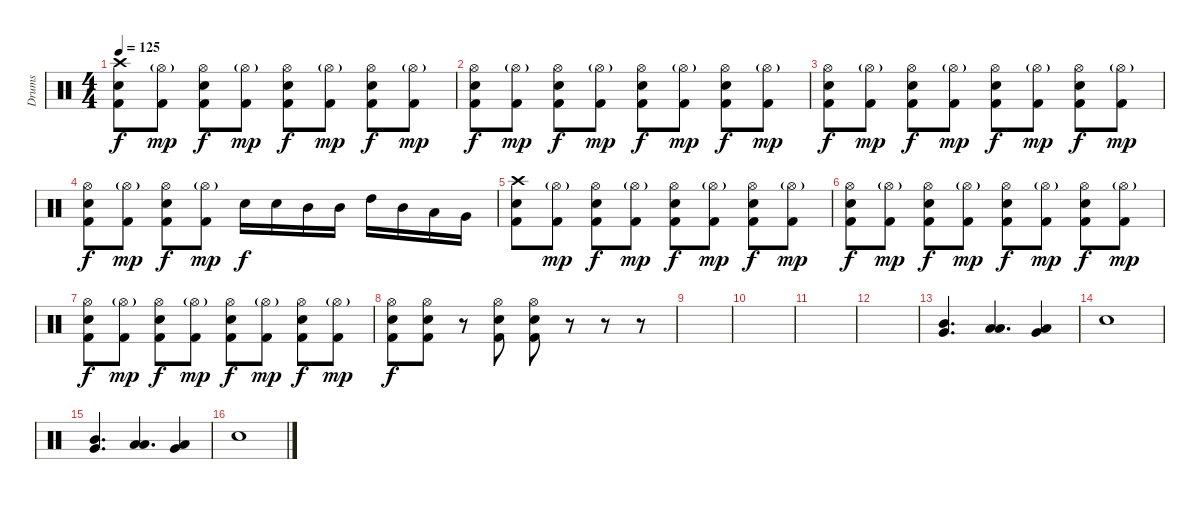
\track ("Drums" "Drums") {instrument percussion}
\staff {score}
\articulation defaults
\ts (4 4)
\tempo 125
\clef neutral
\ks c
("Crash high (hit)" "Snare (hit) 2" "Kick (hit) 2").8{dy f} ("Hi-Hat (open)"{g} "Kick (hit) 2").8{dy mp} ("Hi-Hat (open)" "Snare (hit) 2" "Kick (hit) 2").8{dy f} ("Hi-Hat (open)"{g} "Kick (hit) 2").8{dy mp} ("Hi-Hat (open)" "Snare (hit) 2" "Kick (hit) 2").8{dy f} ("Hi-Hat (open)"{g} "Kick (hit) 2").8{dy mp} ("Hi-Hat (open)" "Snare (hit) 2" "Kick (hit) 2").8{dy f} ("Hi-Hat (open)"{g} "Kick (hit) 2").8{dy mp} |
("Hi-Hat (open)" "Snare (hit) 2" "Kick (hit) 2").8{dy f} ("Hi-Hat (open)"{g} "Kick (hit) 2").8{dy mp} ("Hi-Hat (open)" "Snare (hit) 2" "Kick (hit) 2").8{dy f} ("Hi-Hat (open)"{g} "Kick (hit) 2").8{dy mp} ("Hi-Hat (open)" "Snare (hit) 2" "Kick (hit) 2").8{dy f} ("Hi-Hat (open)"{g} "Kick (hit) 2").8{dy mp} ("Hi-Hat (open)" "Snare (hit) 2" "Kick (hit) 2").8{dy f} ("Hi-Hat (open)"{g} "Kick (hit) 2").8{dy mp} |
("Hi-Hat (open)" "Snare (hit) 2" "Kick (hit) 2").8{dy f} ("Hi-Hat (open)"{g} "Kick (hit) 2").8{dy mp} ("Hi-Hat (open)" "Snare (hit) 2" "Kick (hit) 2").8{dy f} ("Hi-Hat (open)"{g} "Kick (hit) 2").8{dy mp} ("Hi-Hat (open)" "Snare (hit) 2" "Kick (hit) 2").8{dy f} ("Hi-Hat (open)"{g} "Kick (hit) 2").8{dy mp} ("Hi-Hat (open)" "Snare (hit) 2" "Kick (hit) 2").8{dy f} ("Hi-Hat (open)"{g} "Kick (hit) 2").8{dy mp} |
("Hi-Hat (open)" "Snare (hit) 2" "Kick (hit) 2").8{dy f} ("Hi-Hat (open)"{g} "Kick (hit) 2").8{dy mp} ("Hi-Hat (open)" "Snare (hit) 2" "Kick (hit) 2").8{dy f} ("Hi-Hat (open)"{g} "Kick (hit) 2").8{dy mp} "Snare (hit) 2".16{dy f} "Snare (hit) 2".16 "Mid Tom (hit)".16 "Mid Tom (hit)".16 "High Tom (hit)".16 "Mid Tom (hit)".16 "Low Tom (hit)".16 "Very Low Tom (hit)".16 |
("Crash high (hit)" "Snare (hit) 2" "Kick (hit) 2").8 ("Hi-Hat (open)"{g} "Kick (hit) 2").8{dy mp} ("Hi-Hat (open)" "Snare (hit) 2" "Kick (hit) 2").8{dy f} ("Hi-Hat (open)"{g} "Kick (hit) 2").8{dy mp} ("Hi-Hat (open)" "Snare (hit) 2" "Kick (hit) 2").8{dy f} ("Hi-Hat (open)"{g} "Kick (hit) 2").8{dy mp} ("Hi-Hat (open)" "Snare (hit) 2" "Kick (hit) 2").8{dy f} ("Hi-Hat (open)"{g} "Kick (hit) 2").8{dy mp} |
("Hi-Hat (open)" "Snare (hit) 2" "Kick (hit) 2").8{dy f} ("Hi-Hat (open)"{g} "Kick (hit) 2").8{dy mp} ("Hi-Hat (open)" "Snare (hit) 2" "Kick (hit) 2").8{dy f} ("Hi-Hat (open)"{g} "Kick (hit) 2").8{dy mp} ("Hi-Hat (open)" "Snare (hit) 2" "Kick (hit) 2").8{dy f} ("Hi-Hat (open)"{g} "Kick (hit) 2").8{dy mp} ("Hi-Hat (open)" "Snare (hit) 2" "Kick (hit) 2").8{dy f} ("Hi-Hat (open)"{g} "Kick (hit) 2").8{dy mp} |
("Hi-Hat (open)" "Snare (hit) 2" "Kick (hit) 2").8{dy f} ("Hi-Hat (open)"{g} "Kick (hit) 2").8{dy mp} ("Hi-Hat (open)" "Snare (hit) 2" "Kick (hit) 2").8{dy f} ("Hi-Hat (open)"{g} "Kick (hit) 2").8{dy mp} ("Hi-Hat (open)" "Snare (hit) 2" "Kick (hit) 2").8{dy f} ("Hi-Hat (open)"{g} "Kick (hit) 2").8{dy mp} ("Hi-Hat (open)" "Snare (hit) 2" "Kick (hit) 2").8{dy f} ("Hi-Hat (open)"{g} "Kick (hit) 2").8{dy mp} |
("Snare (hit) 2" "Hi-Hat (open)" "Kick (hit) 2").8{dy f} ("Snare (hit) 2" "Hi-Hat (open)" "Kick (hit) 2").8 r.8 ("Snare (hit) 2" "Hi-Hat (open)" "Kick (hit) 2").8 ("Snare (hit) 2" "Hi-Hat (open)" "Kick (hit) 2").8 r.8 r.8 r.8 |
|
|
|
|
("Mid Tom (hit)" "Very Low Tom (hit)").4{d volume 16} ("Low Tom (hit)" "Low Floor Tom (hit)").4{d} ("Very Low Tom (hit)" "Low Floor Tom (hit)").4 |
"Snare (hit) 2".1 |
("Mid Tom (hit)" "Very Low Tom (hit)").4{d} ("Low Tom (hit)" "Low Floor Tom (hit)").4{d} ("Very Low Tom (hit)" "Low Floor Tom (hit)").4 |
"Snare (hit) 2".1
